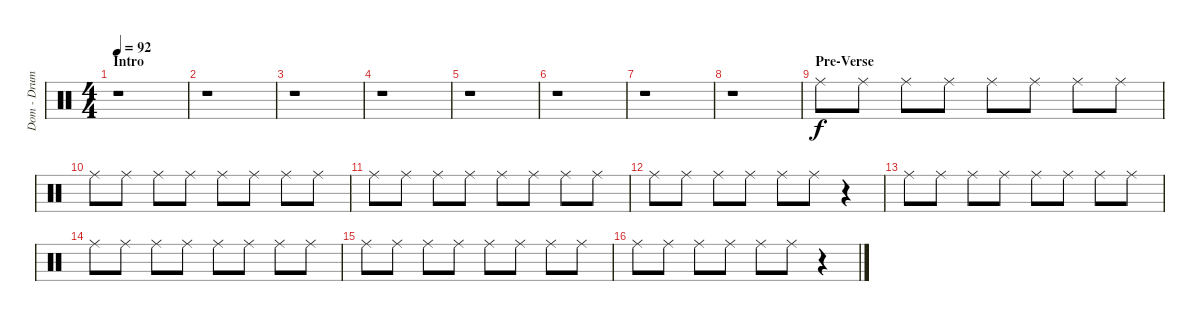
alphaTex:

\track ("Dom - Drums 2" "Dom - Drum") {instrument percussion}
\staff {score}
\articulation defaults
\ts (4 4)
\section ("" "Intro")
\tempo 92
\clef neutral
\ks c
r.1{dy f} |
r.1 |
r.1 |
r.1 |
r.1 |
r.1 |
r.1 |
r.1 |
\section ("" "Pre-Verse")
"Ride (middle)".8 "Ride (middle)".8 "Ride (middle)".8 "Ride (middle)".8 "Ride (middle)".8 "Ride (middle)".8 "Ride (middle)".8 "Ride (middle)".8 |
"Ride (middle)".8 "Ride (middle)".8 "Ride (middle)".8 "Ride (middle)".8 "Ride (middle)".8 "Ride (middle)".8 "Ride (middle)".8 "Ride (middle)".8 |
"Ride (middle)".8 "Ride (middle)".8 "Ride (middle)".8 "Ride (middle)".8 "Ride (middle)".8 "Ride (middle)".8 "Ride (middle)".8 "Ride (middle)".8 |
"Ride (middle)".8 "Ride (middle)".8 "Ride (middle)".8 "Ride (middle)".8 "Ride (middle)".8 "Ride (middle)".8 r.4 |
"Ride (middle)".8 "Ride (middle)".8 "Ride (middle)".8 "Ride (middle)".8 "Ride (middle)".8 "Ride (middle)".8 "Ride (middle)".8 "Ride (middle)".8 |
"Ride (middle)".8 "Ride (middle)".8 "Ride (middle)".8 "Ride (middle)".8 "Ride (middle)".8 "Ride (middle)".8 "Ride (middle)".8 "Ride (middle)".8 |
"Ride (middle)".8 "Ride (middle)".8 "Ride (middle)".8 "Ride (middle)".8 "Ride (middle)".8 "Ride (middle)".8 "Ride (middle)".8 "Ride (middle)".8 |
"Ride (middle)".8 "Ride (middle)".8 "Ride (middle)".8 "Ride (middle)".8 "Ride (middle)".8 "Ride (middle)".8 r.4
